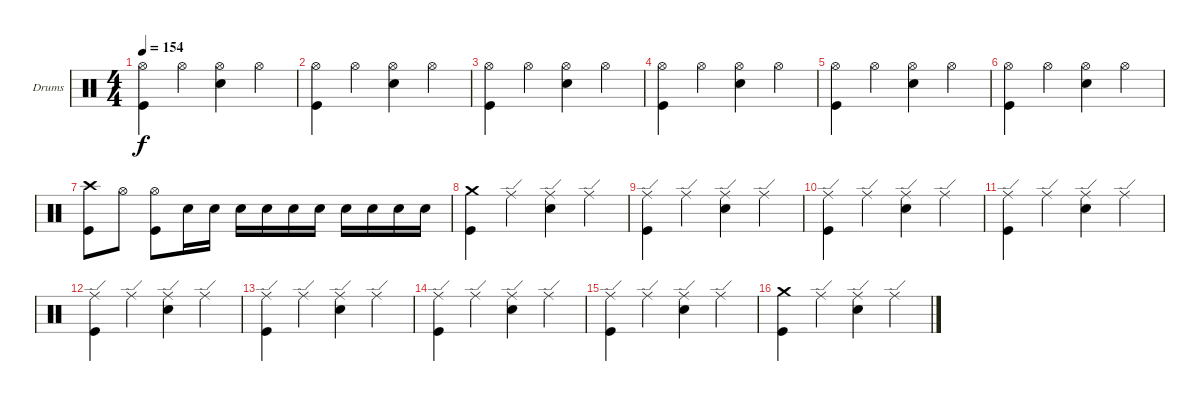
\bracketExtendMode groupsimilarinstruments
\firstSystemTrackNameOrientation horizontal
\otherSystemsTrackNameOrientation horizontal
\track ("Drumkit (Christoph)" "Drums") {instrument percussion}
\staff {score}
\articulation defaults
\ts (4 4)
\tempo 154
\clef neutral
\ks c
("Hi-Hat (open)" "Kick (hit)").4{dy f} "Hi-Hat (open)".4 ("Hi-Hat (open)" "Snare (hit) 2").4 "Hi-Hat (open)".4 |
("Hi-Hat (open)" "Kick (hit)").4 "Hi-Hat (open)".4 ("Hi-Hat (open)" "Snare (hit) 2").4 "Hi-Hat (open)".4 |
("Hi-Hat (open)" "Kick (hit)").4 "Hi-Hat (open)".4 ("Hi-Hat (open)" "Snare (hit) 2").4 "Hi-Hat (open)".4 |
("Hi-Hat (open)" "Kick (hit)").4 "Hi-Hat (open)".4 ("Hi-Hat (open)" "Snare (hit) 2").4 "Hi-Hat (open)".4 |
("Hi-Hat (open)" "Kick (hit)").4 "Hi-Hat (open)".4 ("Hi-Hat (open)" "Snare (hit) 2").4 "Hi-Hat (open)".4 |
("Hi-Hat (open)" "Kick (hit)").4 "Hi-Hat (open)".4 ("Hi-Hat (open)" "Snare (hit) 2").4 "Hi-Hat (open)".4 |
("Crash high (hit)" "Kick (hit)").8 "Hi-Hat (open)".8 ("Hi-Hat (open)" "Kick (hit)").8 "Snare (hit) 2".16 "Snare (hit) 2".16 "Snare (hit) 2".16 "Snare (hit) 2".16 "Snare (hit) 2".16 "Snare (hit) 2".16 "Snare (hit) 2".16 "Snare (hit) 2".16 "Snare (hit) 2".16 "Snare (hit) 2".16 |
("Crash medium (hit)" "Kick (hit)").4 "Ride (edge)".4 ("Ride (edge)" "Snare (hit) 2").4 "Ride (edge)".4 |
("Ride (edge)" "Kick (hit)").4 "Ride (edge)".4 ("Ride (edge)" "Snare (hit) 2").4 "Ride (edge)".4 |
("Ride (edge)" "Kick (hit)").4 "Ride (edge)".4 ("Ride (edge)" "Snare (hit) 2").4 "Ride (edge)".4 |
("Ride (edge)" "Kick (hit)").4 "Ride (edge)".4 ("Ride (edge)" "Snare (hit) 2").4 "Ride (edge)".4 |
("Ride (edge)" "Kick (hit)").4 "Ride (edge)".4 ("Ride (edge)" "Snare (hit) 2").4 "Ride (edge)".4 |
("Ride (edge)" "Kick (hit)").4 "Ride (edge)".4 ("Ride (edge)" "Snare (hit) 2").4 "Ride (edge)".4 |
("Ride (edge)" "Kick (hit)").4 "Ride (edge)".4 ("Ride (edge)" "Snare (hit) 2").4 "Ride (edge)".4 |
("Ride (edge)" "Kick (hit)").4 "Ride (edge)".4 ("Ride (edge)" "Snare (hit) 2").4 "Ride (edge)".4 |
("Crash medium (hit)" "Kick (hit)").4 "Ride (edge)".4 ("Ride (edge)" "Snare (hit) 2").4 "Ride (edge)".4
